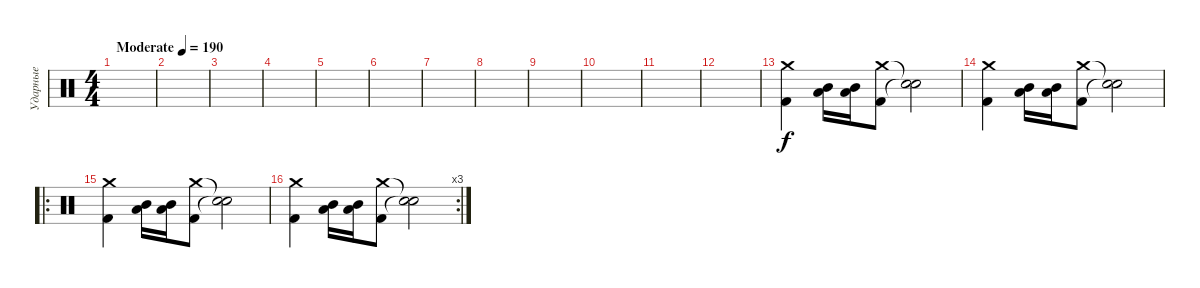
\track ("Ударные" "Ударные") {instrument percussion}
\staff {score}
\articulation defaults
\ts (4 4)
\tempo (190 "Moderate")
\tempo 75
\tempo (190 "Moderate")
\clef neutral
\ks c
|
|
|
|
|
|
|
|
|
|
|
|
("Crash medium (hit)" "Kick (hit) 2").4 ("Low Tom (hit)" "Mid Tom (hit)").16{bd 30} ("Low Tom (hit)" "Mid Tom (hit)").16{bu 30} ("Crash medium (hit)" "Kick (hit) 2").8 ("Snare (hit)"{t} "Snare (hit)"{t}).2 |
("Crash medium (hit)" "Kick (hit) 2").4 ("Low Tom (hit)" "Mid Tom (hit)").16{bu 30} ("Low Tom (hit)" "Mid Tom (hit)").16{bd 30} ("Crash medium (hit)" "Kick (hit) 2").8 ("Snare (hit)"{t} "Snare (hit)"{t}).2 |
\ro
("Crash medium (hit)" "Kick (hit) 2").4 ("Low Tom (hit)" "Mid Tom (hit)").16{bd 30} ("Low Tom (hit)" "Mid Tom (hit)").16{bd 30} ("Crash medium (hit)" "Kick (hit) 2").8 ("Snare (hit)"{t} "Snare (hit)"{t}).2 |
\rc 3
("Crash medium (hit)" "Kick (hit) 2").4 ("Low Tom (hit)" "Mid Tom (hit)").16{bu 30} ("Low Tom (hit)" "Mid Tom (hit)").16{bu 30} ("Crash medium (hit)" "Kick (hit) 2").8 ("Snare (hit)"{t} "Snare (hit)"{t}).2
